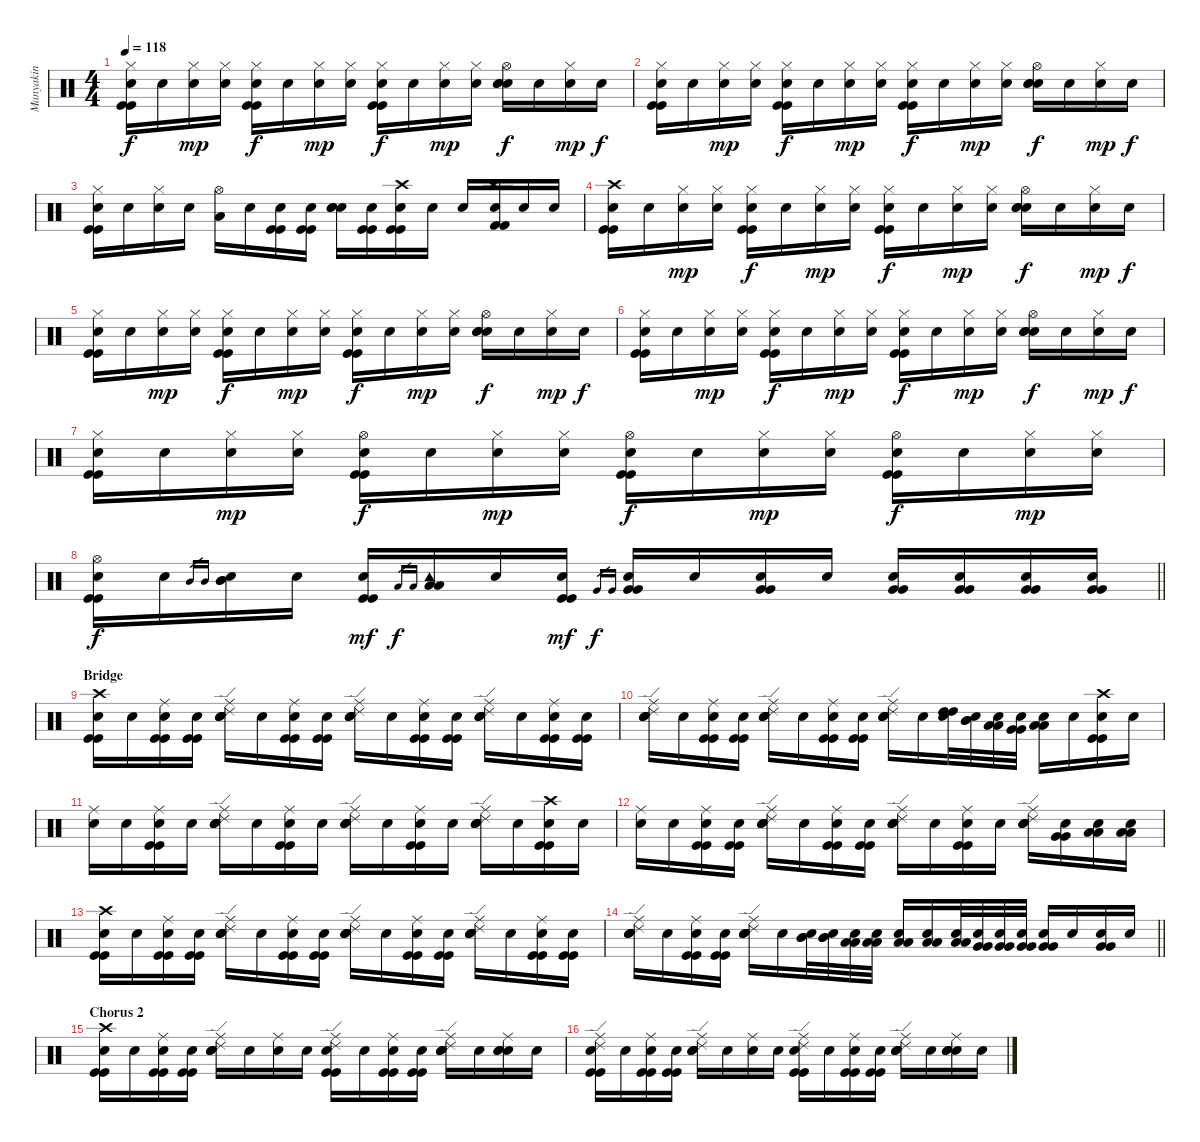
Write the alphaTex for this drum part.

\track ("Manyakin" "Manyakin") {instrument percussion}
\staff {score}
\articulation defaults
\ts (4 4)
\tempo 118
\clef neutral
\ks c
("Hi-Hat (closed)" "Kick (hit)" "Kick (hit)" "Snare (hit)"{x}).16{dy f} "Snare (hit)"{x}.16 ("Hi-Hat (closed)" "Snare (hit)"{x}).16{dy mp} ("Hi-Hat (closed)" "Snare (hit)"{x}).16 ("Hi-Hat (closed)" "Kick (hit)" "Kick (hit)" "Snare (hit)"{x}).16{dy f} "Snare (hit)"{x}.16 ("Hi-Hat (closed)" "Snare (hit)"{x}).16{dy mp} ("Hi-Hat (closed)" "Snare (hit)"{x}).16 ("Hi-Hat (closed)" "Kick (hit)" "Kick (hit)" "Snare (hit)"{x}).16{dy f} "Snare (hit)"{x}.16 ("Hi-Hat (closed)" "Snare (hit)"{x}).16{dy mp} ("Hi-Hat (closed)" "Snare (hit)"{x}).16 ("Hi-Hat (open)" "Electric Snare (hit)" "Electric Snare (hit)" "Snare (hit)"{x}).16{dy f} "Snare (hit)"{x}.16 ("Hi-Hat (closed)" "Snare (hit)"{x}).16{dy mp} "Snare (hit)"{x}.16{dy f} |
("Hi-Hat (closed)" "Kick (hit)" "Kick (hit)" "Snare (hit)"{x}).16 "Snare (hit)"{x}.16 ("Hi-Hat (closed)" "Snare (hit)"{x}).16{dy mp} ("Hi-Hat (closed)" "Snare (hit)"{x}).16 ("Hi-Hat (closed)" "Kick (hit)" "Kick (hit)" "Snare (hit)"{x}).16{dy f} "Snare (hit)"{x}.16 ("Hi-Hat (closed)" "Snare (hit)"{x}).16{dy mp} ("Hi-Hat (closed)" "Snare (hit)"{x}).16 ("Hi-Hat (closed)" "Kick (hit)" "Kick (hit)" "Snare (hit)"{x}).16{dy f} "Snare (hit)"{x}.16 ("Hi-Hat (closed)" "Snare (hit)"{x}).16{dy mp} ("Hi-Hat (closed)" "Snare (hit)"{x}).16 ("Hi-Hat (open)" "Electric Snare (hit)" "Electric Snare (hit)" "Snare (hit)"{x}).16{dy f} "Snare (hit)"{x}.16 ("Hi-Hat (closed)" "Snare (hit)"{x}).16{dy mp} "Snare (hit)"{x}.16{dy f} |
("Hi-Hat (closed)" "Kick (hit)" "Kick (hit)" "Snare (hit)"{x}).16 "Snare (hit)"{x}.16 ("Hi-Hat (closed)" "Snare (hit)"{x}).16 "Snare (hit)"{x}.16 ("Hi-Hat (open)" "Low Tom (hit)"{x}).16 "Snare (hit)"{x}.16 ("Kick (hit)" "Kick (hit)" "Snare (hit)"{x}).16 ("Kick (hit)" "Kick (hit)" "Snare (hit)"{x}).16 ("Electric Snare (hit)" "Electric Snare (hit)" "Snare (hit)"{x}).16 ("Kick (hit)" "Kick (hit)" "Snare (hit)"{x}).16 ("Crash high (hit)" "Kick (hit)" "Kick (hit)" "Snare (hit)"{x}).16 "Snare (hit)"{x}.16 "Snare (hit)"{x}.16 ("Crash high (hit)" "Kick (hit) 2" "Kick (hit) 2" "Snare (hit)"{x}).16 "Snare (hit)"{x}.16 "Snare (hit)"{x}.16 |
("Crash high (hit)" "Kick (hit)" "Kick (hit)" "Snare (hit)"{x}).16 "Snare (hit)"{x}.16 ("Hi-Hat (closed)" "Snare (hit)"{x}).16{dy mp} ("Hi-Hat (closed)" "Snare (hit)"{x}).16 ("Hi-Hat (closed)" "Kick (hit)" "Kick (hit)" "Snare (hit)"{x}).16{dy f} "Snare (hit)"{x}.16 ("Hi-Hat (closed)" "Snare (hit)"{x}).16{dy mp} ("Hi-Hat (closed)" "Snare (hit)"{x}).16 ("Hi-Hat (closed)" "Kick (hit)" "Kick (hit)" "Snare (hit)"{x}).16{dy f} "Snare (hit)"{x}.16 ("Hi-Hat (closed)" "Snare (hit)"{x}).16{dy mp} ("Hi-Hat (closed)" "Snare (hit)"{x}).16 ("Hi-Hat (open)" "Electric Snare (hit)" "Electric Snare (hit)" "Snare (hit)"{x}).16{dy f} "Snare (hit)"{x}.16 ("Hi-Hat (closed)" "Snare (hit)"{x}).16{dy mp} "Snare (hit)"{x}.16{dy f} |
("Hi-Hat (closed)" "Kick (hit)" "Kick (hit)" "Snare (hit)"{x}).16 "Snare (hit)"{x}.16 ("Hi-Hat (closed)" "Snare (hit)"{x}).16{dy mp} ("Hi-Hat (closed)" "Snare (hit)"{x}).16 ("Hi-Hat (closed)" "Kick (hit)" "Kick (hit)" "Snare (hit)"{x}).16{dy f} "Snare (hit)"{x}.16 ("Hi-Hat (closed)" "Snare (hit)"{x}).16{dy mp} ("Hi-Hat (closed)" "Snare (hit)"{x}).16 ("Hi-Hat (closed)" "Kick (hit)" "Kick (hit)" "Snare (hit)"{x}).16{dy f} "Snare (hit)"{x}.16 ("Hi-Hat (closed)" "Snare (hit)"{x}).16{dy mp} ("Hi-Hat (closed)" "Snare (hit)"{x}).16 ("Hi-Hat (open)" "Electric Snare (hit)" "Electric Snare (hit)" "Snare (hit)"{x}).16{dy f} "Snare (hit)"{x}.16 ("Hi-Hat (closed)" "Snare (hit)"{x}).16{dy mp} "Snare (hit)"{x}.16{dy f} |
("Hi-Hat (closed)" "Kick (hit)" "Kick (hit)" "Snare (hit)"{x}).16 "Snare (hit)"{x}.16 ("Hi-Hat (closed)" "Snare (hit)"{x}).16{dy mp} ("Hi-Hat (closed)" "Snare (hit)"{x}).16 ("Hi-Hat (closed)" "Kick (hit)" "Kick (hit)" "Snare (hit)"{x}).16{dy f} "Snare (hit)"{x}.16 ("Hi-Hat (closed)" "Snare (hit)"{x}).16{dy mp} ("Hi-Hat (closed)" "Snare (hit)"{x}).16 ("Hi-Hat (closed)" "Kick (hit)" "Kick (hit)" "Snare (hit)"{x}).16{dy f} "Snare (hit)"{x}.16 ("Hi-Hat (closed)" "Snare (hit)"{x}).16{dy mp} ("Hi-Hat (closed)" "Snare (hit)"{x}).16 ("Hi-Hat (open)" "Electric Snare (hit)" "Electric Snare (hit)" "Snare (hit)"{x}).16{dy f} "Snare (hit)"{x}.16 ("Hi-Hat (closed)" "Snare (hit)"{x}).16{dy mp} "Snare (hit)"{x}.16{dy f} |
("Hi-Hat (closed)" "Kick (hit)" "Kick (hit)" "Snare (hit)"{x}).16 "Snare (hit)"{x}.16 ("Hi-Hat (closed)" "Snare (hit)"{x}).16{dy mp} ("Hi-Hat (closed)" "Snare (hit)"{x}).16 ("Hi-Hat (open)" "Kick (hit)" "Kick (hit)" "Snare (hit)"{x}).16{dy f} "Snare (hit)"{x}.16 ("Hi-Hat (closed)" "Snare (hit)"{x}).16{dy mp} ("Hi-Hat (closed)" "Snare (hit)"{x}).16 ("Hi-Hat (open)" "Kick (hit)" "Kick (hit)" "Snare (hit)"{x}).16{dy f} "Snare (hit)"{x}.16 ("Hi-Hat (closed)" "Snare (hit)"{x}).16{dy mp} ("Hi-Hat (closed)" "Snare (hit)"{x}).16 ("Hi-Hat (open)" "Kick (hit)" "Kick (hit)" "Snare (hit)"{x}).16{dy f} "Snare (hit)"{x}.16 ("Hi-Hat (closed)" "Snare (hit)"{x}).16{dy mp} ("Hi-Hat (closed)" "Snare (hit)"{x}).16 |
\barLineRight lightlight
("Hi-Hat (open)" "Kick (hit)" "Kick (hit)" "Snare (hit)"{x}).16{dy f} "Snare (hit)"{x}.16 "Mid Tom (hit)".16{gr} "Mid Tom (hit)".16{gr} ("Mid Tom (hit)" "Mid Tom (hit)" "Snare (hit)"{x}).16 "Snare (hit)"{x}.16 ("Kick (hit)" "Kick (hit)" "Snare (hit)"{x}).16{dy mf} "Low Tom (hit)".16{gr dy f} "Low Tom (hit)".16{gr} ("Low Tom (hit)" "Low Tom (hit)" "Tambourine (hit)"{x}).16 "Snare (hit)"{x}.16 ("Kick (hit)" "Kick (hit)" "Snare (hit)"{x}).16{dy mf} "Very Low Tom (hit)".16{gr dy f} "Very Low Tom (hit)".16{gr} ("Very Low Tom (hit)" "Very Low Tom (hit)" "Snare (hit)"{x}).16 "Snare (hit)"{x}.16 ("Very Low Tom (hit)" "Very Low Tom (hit)" "Snare (hit)"{x}).16 "Snare (hit)"{x}.16 ("Very Low Tom (hit)" "Very Low Tom (hit)" "Snare (hit)"{x}).16 ("Very Low Tom (hit)" "Very Low Tom (hit)" "Snare (hit)"{x}).16 ("Very Low Tom (hit)" "Very Low Tom (hit)" "Snare (hit)"{x}).16 ("Very Low Tom (hit)" "Very Low Tom (hit)" "Snare (hit)"{x}).16 |
\section ("" "Bridge")
("Crash high (hit)" "Kick (hit)" "Kick (hit)" "Snare (hit)"{x}).16 "Snare (hit)"{x}.16 ("Ride (middle)" "Kick (hit)" "Kick (hit)" "Snare (hit)"{x}).16 ("Kick (hit)" "Kick (hit)" "Snare (hit)"{x}).16 ("Ride (middle)" "Ride (edge) 2" "Electric Snare (hit)" "Electric Snare (hit)" "Snare (hit)"{x}).16 "Snare (hit)"{x}.16 ("Ride (middle)" "Kick (hit)" "Kick (hit)" "Snare (hit)"{x}).16 ("Kick (hit)" "Kick (hit)" "Snare (hit)"{x}).16 ("Ride (middle)" "Ride (edge) 2" "Electric Snare (hit)" "Electric Snare (hit)" "Snare (hit)"{x}).16 "Snare (hit)"{x}.16 ("Ride (middle)" "Kick (hit)" "Kick (hit)" "Snare (hit)"{x}).16 ("Kick (hit)" "Kick (hit)" "Snare (hit)"{x}).16 ("Ride (middle)" "Ride (edge) 2" "Electric Snare (hit)" "Electric Snare (hit)" "Snare (hit)"{x}).16 "Snare (hit)"{x}.16 ("Ride (middle)" "Kick (hit)" "Kick (hit)" "Snare (hit)"{x}).16 ("Kick (hit)" "Kick (hit)" "Snare (hit)"{x}).16 |
("Ride (middle)" "Ride (edge) 2" "Electric Snare (hit)" "Electric Snare (hit)" "Snare (hit)"{x}).16 "Snare (hit)"{x}.16 ("Ride (middle)" "Kick (hit)" "Kick (hit)" "Snare (hit)"{x}).16 ("Kick (hit)" "Kick (hit)" "Snare (hit)"{x}).16 ("Ride (middle)" "Ride (edge) 2" "Electric Snare (hit)" "Electric Snare (hit)" "Snare (hit)"{x}).16 "Snare (hit)"{x}.16 ("Ride (middle)" "Kick (hit)" "Kick (hit)" "Snare (hit)"{x}).16 ("Kick (hit)" "Kick (hit)" "Snare (hit)"{x}).16 ("Ride (middle)" "Ride (edge) 2" "Electric Snare (hit)" "Electric Snare (hit)" "Snare (hit)"{x}).16 "Snare (hit)"{x}.16 ("High Tom (hit)" "High Tom (hit)" "Snare (hit)"{x}).32 ("Mid Tom (hit)" "Mid Tom (hit)" "Snare (hit)"{x}).32 ("Low Tom (hit)" "Low Tom (hit)" "Snare (hit)"{x}).32 ("Very Low Tom (hit)" "Very Low Tom (hit)" "Snare (hit)"{x}).32 ("Low Floor Tom (hit)" "Low Floor Tom (hit)" "Snare (hit)"{x}).16 "Snare (hit)"{x}.16 ("Crash high (hit)" "Kick (hit)" "Kick (hit)" "Snare (hit)"{x}).16 "Snare (hit)"{x}.16 |
("Ride (middle)" "Snare (hit)"{x}).16 "Snare (hit)"{x}.16 ("Ride (middle)" "Kick (hit)" "Kick (hit)" "Snare (hit)"{x}).16 "Snare (hit)"{x}.16 ("Ride (middle)" "Ride (edge) 2" "Electric Snare (hit)" "Electric Snare (hit)" "Snare (hit)"{x}).16 "Snare (hit)"{x}.16 ("Ride (middle)" "Kick (hit)" "Kick (hit)" "Snare (hit)"{x}).16 "Snare (hit)"{x}.16 ("Ride (middle)" "Ride (edge) 2" "Electric Snare (hit)" "Electric Snare (hit)" "Snare (hit)"{x}).16 "Snare (hit)"{x}.16 ("Ride (middle)" "Kick (hit)" "Kick (hit)" "Snare (hit)"{x}).16 "Snare (hit)"{x}.16 ("Ride (middle)" "Ride (edge) 2" "Electric Snare (hit)" "Electric Snare (hit)" "Snare (hit)"{x}).16 "Snare (hit)"{x}.16 ("Crash high (hit)" "Kick (hit)" "Kick (hit)" "Snare (hit)"{x}).16 "Snare (hit)"{x}.16 |
("Ride (middle)" "Snare (hit)"{x}).16 "Snare (hit)"{x}.16 ("Ride (middle)" "Kick (hit)" "Kick (hit)" "Snare (hit)"{x}).16 ("Kick (hit)" "Kick (hit)" "Snare (hit)"{x}).16 ("Ride (middle)" "Ride (edge) 2" "Electric Snare (hit)" "Electric Snare (hit)" "Snare (hit)"{x}).16 "Snare (hit)"{x}.16 ("Ride (middle)" "Kick (hit)" "Kick (hit)" "Snare (hit)"{x}).16 ("Kick (hit)" "Kick (hit)" "Snare (hit)"{x}).16 ("Ride (middle)" "Ride (edge) 2" "Electric Snare (hit)" "Electric Snare (hit)" "Snare (hit)"{x}).16 "Snare (hit)"{x}.16 ("Ride (middle)" "Kick (hit)" "Kick (hit)" "Snare (hit)"{x}).16 "Snare (hit)"{x}.16 ("Ride (middle)" "Ride (edge) 2" "Electric Snare (hit)" "Electric Snare (hit)" "Snare (hit)"{x}).16 ("Very Low Tom (hit)" "Very Low Tom (hit)" "Snare (hit)"{x}).16 ("Low Floor Tom (hit)" "Low Floor Tom (hit)" "Snare (hit)"{x}).16 ("Low Floor Tom (hit)" "Low Floor Tom (hit)" "Snare (hit)"{x}).16 |
("Crash high (hit)" "Kick (hit)" "Kick (hit)" "Snare (hit)"{x}).16 "Snare (hit)"{x}.16 ("Ride (middle)" "Kick (hit)" "Kick (hit)" "Snare (hit)"{x}).16 ("Kick (hit)" "Kick (hit)" "Snare (hit)"{x}).16 ("Ride (middle)" "Ride (edge) 2" "Electric Snare (hit)" "Electric Snare (hit)" "Snare (hit)"{x}).16 "Snare (hit)"{x}.16 ("Ride (middle)" "Kick (hit)" "Kick (hit)" "Snare (hit)"{x}).16 ("Kick (hit)" "Kick (hit)" "Snare (hit)"{x}).16 ("Ride (middle)" "Ride (edge) 2" "Electric Snare (hit)" "Electric Snare (hit)" "Snare (hit)"{x}).16 "Snare (hit)"{x}.16 ("Ride (middle)" "Kick (hit)" "Kick (hit)" "Snare (hit)"{x}).16 ("Kick (hit)" "Kick (hit)" "Snare (hit)"{x}).16 ("Ride (middle)" "Ride (edge) 2" "Electric Snare (hit)" "Electric Snare (hit)" "Snare (hit)"{x}).16 "Snare (hit)"{x}.16 ("Ride (middle)" "Kick (hit)" "Kick (hit)" "Snare (hit)"{x}).16 ("Kick (hit)" "Kick (hit)" "Snare (hit)"{x}).16 |
\barLineRight lightlight
("Ride (middle)" "Ride (edge) 2" "Electric Snare (hit)" "Electric Snare (hit)" "Snare (hit)"{x}).16 "Snare (hit)"{x}.16 ("Ride (middle)" "Kick (hit)" "Kick (hit)" "Snare (hit)"{x}).16 ("Kick (hit)" "Kick (hit)" "Snare (hit)"{x}).16 ("Ride (middle)" "Ride (edge) 2" "Electric Snare (hit)" "Electric Snare (hit)" "Snare (hit)"{x}).16 "Snare (hit)"{x}.16 ("Mid Tom (hit)" "Mid Tom (hit)" "Snare (hit)"{x}).32 ("Mid Tom (hit)" "Mid Tom (hit)" "Snare (hit)"{x}).32 ("Low Tom (hit)" "Low Tom (hit)" "Snare (hit)"{x}).32 ("Low Tom (hit)" "Low Tom (hit)" "Snare (hit)"{x}).32 ("Low Tom (hit)" "Low Tom (hit)" "Snare (hit)"{x}).16 ("Low Tom (hit)" "Low Tom (hit)" "Snare (hit)"{x}).16 ("Low Tom (hit)" "Low Tom (hit)" "Snare (hit)"{x}).32 ("Very Low Tom (hit)" "Very Low Tom (hit)" "Snare (hit)"{x}).32 ("Very Low Tom (hit)" "Very Low Tom (hit)" "Snare (hit)"{x}).32 ("Very Low Tom (hit)" "Very Low Tom (hit)" "Snare (hit)"{x}).32 ("Very Low Tom (hit)" "Very Low Tom (hit)" "Snare (hit)"{x}).16 "Snare (hit)"{x}.16 ("Very Low Tom (hit)" "Very Low Tom (hit)" "Snare (hit)"{x}).16 "Snare (hit)"{x}.16 |
\section ("" "Chorus 2")
("Crash high (hit)" "Kick (hit)" "Kick (hit)" "Snare (hit)"{x}).16 "Snare (hit)"{x}.16 ("Ride (middle)" "Kick (hit)" "Kick (hit)" "Snare (hit)"{x}).16 ("Kick (hit)" "Kick (hit)" "Snare (hit)"{x}).16 ("Ride (middle)" "Ride (edge) 2" "Electric Snare (hit)" "Electric Snare (hit)" "Snare (hit)"{x}).16 "Snare (hit)"{x}.16 ("Ride (middle)" "Snare (hit)"{x}).16 "Snare (hit)"{x}.16 ("Ride (middle)" "Ride (edge) 2" "Kick (hit)" "Kick (hit)" "Snare (hit)"{x}).16 "Snare (hit)"{x}.16 ("Ride (middle)" "Kick (hit)" "Kick (hit)" "Snare (hit)"{x}).16 ("Kick (hit)" "Kick (hit)" "Snare (hit)"{x}).16 ("Ride (middle)" "Ride (edge) 2" "Electric Snare (hit)" "Electric Snare (hit)" "Snare (hit)"{x}).16 "Snare (hit)"{x}.16 ("Ride (middle)" "Electric Snare (hit)" "Electric Snare (hit)" "Snare (hit)"{x}).16 "Snare (hit)"{x}.16 |
("Ride (middle)" "Ride (edge) 2" "Kick (hit)" "Kick (hit)" "Snare (hit)"{x}).16 "Snare (hit)"{x}.16 ("Ride (middle)" "Kick (hit)" "Kick (hit)" "Snare (hit)"{x}).16 ("Kick (hit)" "Kick (hit)" "Snare (hit)"{x}).16 ("Ride (middle)" "Ride (edge) 2" "Electric Snare (hit)" "Electric Snare (hit)" "Snare (hit)"{x}).16 "Snare (hit)"{x}.16 ("Ride (middle)" "Snare (hit)"{x}).16 "Snare (hit)"{x}.16 ("Ride (middle)" "Ride (edge) 2" "Kick (hit)" "Kick (hit)" "Snare (hit)"{x}).16 "Snare (hit)"{x}.16 ("Ride (middle)" "Kick (hit)" "Kick (hit)" "Snare (hit)"{x}).16 ("Kick (hit)" "Kick (hit)" "Snare (hit)"{x}).16 ("Ride (middle)" "Ride (edge) 2" "Electric Snare (hit)" "Electric Snare (hit)" "Snare (hit)"{x}).16 "Snare (hit)"{x}.16 ("Ride (middle)" "Electric Snare (hit)" "Electric Snare (hit)" "Snare (hit)"{x}).16 "Snare (hit)"{x}.16
